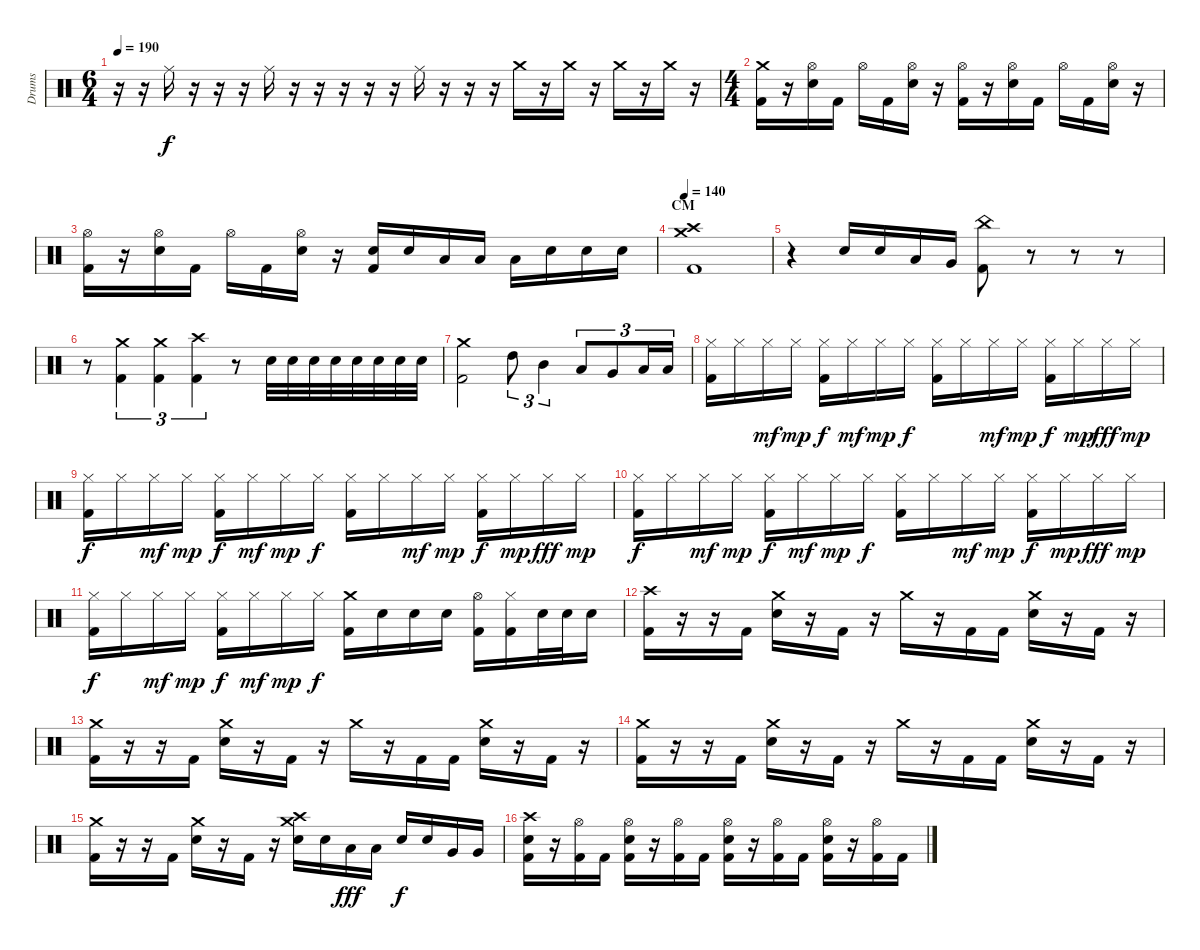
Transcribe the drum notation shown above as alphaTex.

\track ("Drums" "Drums") {instrument percussion}
\staff {score}
\articulation defaults
\ts (6 4)
\tempo 190
\clef neutral
\ks c
r.16{dy f} r.16 "Ride (middle)".16 r.16 r.16 r.16 "Ride (middle)".16 r.16 r.16 r.16 r.16 r.16 "Ride (middle)".16 r.16 r.16 r.16 "Crash medium (hit)".16 r.16 "Crash medium (hit)".16 r.16 "Crash medium (hit)".16 r.16 "Crash medium (hit)".16 r.16 |
\ts (4 4)
("Crash medium (hit)" "Kick (hit) 2").16 r.16 ("Hi-Hat (open)" "Electric Snare (hit)").16 "Kick (hit) 2".16 "Hi-Hat (open)".16 "Kick (hit) 2".16 ("Hi-Hat (open)" "Electric Snare (hit)").16 r.16 ("Hi-Hat (open)" "Kick (hit) 2").16 r.16 ("Hi-Hat (open)" "Electric Snare (hit)").16 "Kick (hit) 2".16 "Hi-Hat (open)".16 "Kick (hit) 2".16 ("Hi-Hat (open)" "Electric Snare (hit)").16 r.16 |
("Hi-Hat (open)" "Kick (hit) 2").16 r.16 ("Hi-Hat (open)" "Electric Snare (hit)").16 "Kick (hit) 2".16 "Hi-Hat (open)".16 "Kick (hit) 2".16 ("Hi-Hat (open)" "Electric Snare (hit)").16 r.16 ("Electric Snare (hit)" "Kick (hit) 2").16 "Electric Snare (hit)".16 "Low Floor Tom (hit)".16 "Low Floor Tom (hit)".16 "Low Floor Tom (hit)".16 "Electric Snare (hit)".16 "Electric Snare (hit)".16 "Electric Snare (hit)".16 |
\section ("" "CM")
\tempo 140
("Crash medium (hit)" "Crash high (hit)" "Kick (hit) 2").1 |
r.4 "Electric Snare (hit)".16 "Electric Snare (hit)".16 "Low Tom (hit)".16 "Very Low Tom (hit)".16 ("China (hit)" "Kick (hit) 2").8 r.8 r.8 r.8 |
r.8 ("Crash medium (hit)" "Kick (hit) 2").4{tu (3 2)} ("Crash medium (hit)" "Kick (hit) 2").4{tu (3 2)} ("Crash high (hit)" "Kick (hit) 2").4{tu (3 2)} r.8 "Electric Snare (hit)".32 "Electric Snare (hit)".32 "Electric Snare (hit)".32 "Electric Snare (hit)".32 "Electric Snare (hit)".32 "Electric Snare (hit)".32 "Electric Snare (hit)".32 "Electric Snare (hit)".32 |
("Crash medium (hit)" "Kick (hit) 2").2 "High Tom (hit)".8{tu (3 2)} "Mid Tom (hit)".4{tu (3 2)} "Low Tom (hit)".8{tu (3 2)} "Very Low Tom (hit)".8{tu (3 2)} "Low Floor Tom (hit)".16{tu (3 2)} "Low Floor Tom (hit)".16{tu (3 2)} |
("Hi-Hat (closed)" "Kick (hit) 2").16 "Hi-Hat (closed)".16 "Hi-Hat (closed)".16{dy mf} "Hi-Hat (closed)".16{dy mp} ("Hi-Hat (closed)" "Kick (hit) 2").16{dy f} "Hi-Hat (closed)".16{dy mf} "Hi-Hat (closed)".16{dy mp} "Hi-Hat (closed)".16{dy f} ("Hi-Hat (closed)" "Kick (hit) 2").16 "Hi-Hat (closed)".16 "Hi-Hat (closed)".16{dy mf} "Hi-Hat (closed)".16{dy mp} ("Hi-Hat (closed)" "Kick (hit) 2").16{dy f} "Hi-Hat (closed)".16{dy mp} "Hi-Hat (closed)".16{dy fff} "Hi-Hat (closed)".16{dy mp} |
("Hi-Hat (closed)" "Kick (hit) 2").16{dy f} "Hi-Hat (closed)".16 "Hi-Hat (closed)".16{dy mf} "Hi-Hat (closed)".16{dy mp} ("Hi-Hat (closed)" "Kick (hit) 2").16{dy f} "Hi-Hat (closed)".16{dy mf} "Hi-Hat (closed)".16{dy mp} "Hi-Hat (closed)".16{dy f} ("Hi-Hat (closed)" "Kick (hit) 2").16 "Hi-Hat (closed)".16 "Hi-Hat (closed)".16{dy mf} "Hi-Hat (closed)".16{dy mp} ("Hi-Hat (closed)" "Kick (hit) 2").16{dy f} "Hi-Hat (closed)".16{dy mp} "Hi-Hat (closed)".16{dy fff} "Hi-Hat (closed)".16{dy mp} |
("Hi-Hat (closed)" "Kick (hit) 2").16{dy f} "Hi-Hat (closed)".16 "Hi-Hat (closed)".16{dy mf} "Hi-Hat (closed)".16{dy mp} ("Hi-Hat (closed)" "Kick (hit) 2").16{dy f} "Hi-Hat (closed)".16{dy mf} "Hi-Hat (closed)".16{dy mp} "Hi-Hat (closed)".16{dy f} ("Hi-Hat (closed)" "Kick (hit) 2").16 "Hi-Hat (closed)".16 "Hi-Hat (closed)".16{dy mf} "Hi-Hat (closed)".16{dy mp} ("Hi-Hat (closed)" "Kick (hit) 2").16{dy f} "Hi-Hat (closed)".16{dy mp} "Hi-Hat (closed)".16{dy fff} "Hi-Hat (closed)".16{dy mp} |
("Hi-Hat (closed)" "Kick (hit) 2").16{dy f} "Hi-Hat (closed)".16 "Hi-Hat (closed)".16{dy mf} "Hi-Hat (closed)".16{dy mp} ("Hi-Hat (closed)" "Kick (hit) 2").16{dy f} "Hi-Hat (closed)".16{dy mf} "Hi-Hat (closed)".16{dy mp} "Hi-Hat (closed)".16{dy f} ("Crash medium (hit)" "Kick (hit) 2").16 "Electric Snare (hit)".16 "Electric Snare (hit)".16 "Electric Snare (hit)".16 ("Hi-Hat (open)" "Kick (hit) 2").16 ("Hi-Hat (closed)" "Kick (hit) 2").16 "Electric Snare (hit)".32 "Electric Snare (hit)".32 "Electric Snare (hit)".16 |
("Crash high (hit)" "Kick (hit) 2").16 r.16 r.16 "Kick (hit) 2".16 ("Crash medium (hit)" "Electric Snare (hit)").16 r.16 "Kick (hit) 2".16 r.16 "Crash medium (hit)".16 r.16 "Kick (hit) 2".16 "Kick (hit) 2".16 ("Crash medium (hit)" "Electric Snare (hit)").16 r.16 "Kick (hit) 2".16 r.16 |
("Crash medium (hit)" "Kick (hit) 2").16 r.16 r.16 "Kick (hit) 2".16 ("Crash medium (hit)" "Electric Snare (hit)").16 r.16 "Kick (hit) 2".16 r.16 "Crash medium (hit)".16 r.16 "Kick (hit) 2".16 "Kick (hit) 2".16 ("Crash medium (hit)" "Electric Snare (hit)").16 r.16 "Kick (hit) 2".16 r.16 |
("Crash medium (hit)" "Kick (hit) 2").16 r.16 r.16 "Kick (hit) 2".16 ("Crash medium (hit)" "Electric Snare (hit)").16 r.16 "Kick (hit) 2".16 r.16 "Crash medium (hit)".16 r.16 "Kick (hit) 2".16 "Kick (hit) 2".16 ("Crash medium (hit)" "Electric Snare (hit)").16 r.16 "Kick (hit) 2".16 r.16 |
("Crash medium (hit)" "Kick (hit) 2").16 r.16 r.16 "Kick (hit) 2".16 ("Crash medium (hit)" "Electric Snare (hit)").16 r.16 "Kick (hit) 2".16 r.16 ("Crash high (hit)" "Crash medium (hit)" "Electric Snare (hit)").16 "Electric Snare (hit)".16 "Low Floor Tom (hit)".16{dy fff} "Low Floor Tom (hit)".16 "Electric Snare (hit)".16{dy f} "Electric Snare (hit)".16 "Very Low Tom (hit)".16 "Very Low Tom (hit)".16 |
("Crash high (hit)" "Electric Snare (hit)" "Kick (hit) 2").16 r.16 ("Hi-Hat (open)" "Kick (hit) 2").16 "Kick (hit) 2".16 ("Hi-Hat (open)" "Electric Snare (hit)" "Kick (hit) 2").16 r.16 ("Hi-Hat (open)" "Kick (hit) 2").16 "Kick (hit) 2".16 ("Hi-Hat (open)" "Electric Snare (hit)" "Kick (hit) 2").16 r.16 ("Hi-Hat (open)" "Kick (hit) 2").16 "Kick (hit) 2".16 ("Hi-Hat (open)" "Electric Snare (hit)" "Kick (hit) 2").16 r.16 ("Hi-Hat (open)" "Kick (hit) 2").16 "Kick (hit) 2".16
